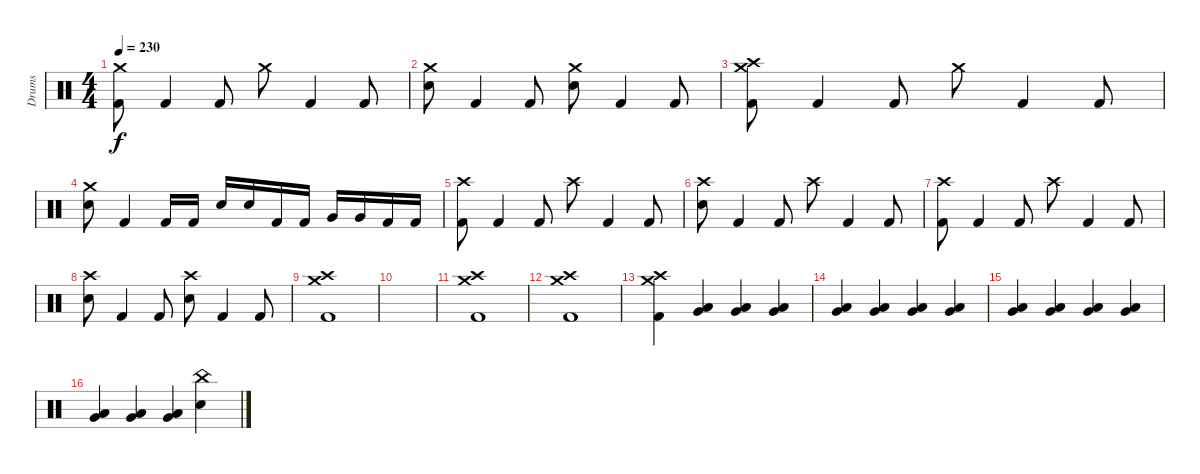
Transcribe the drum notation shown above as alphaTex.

\track ("Drums" "Drums") {instrument percussion}
\staff {score}
\articulation defaults
\ts (4 4)
\tempo 230
\clef neutral
\ks c
("Crash medium (hit)" "Kick (hit) 2").8{dy f} "Kick (hit) 2".4 "Kick (hit) 2".8 "Crash medium (hit)".8 "Kick (hit) 2".4 "Kick (hit) 2".8 |
("Crash medium (hit)" "Electric Snare (hit)").8 "Kick (hit) 2".4 "Kick (hit) 2".8 ("Crash medium (hit)" "Electric Snare (hit)").8 "Kick (hit) 2".4 "Kick (hit) 2".8 |
("Crash medium (hit)" "Crash high (hit)" "Kick (hit) 2").8 "Kick (hit) 2".4 "Kick (hit) 2".8 "Crash medium (hit)".8 "Kick (hit) 2".4 "Kick (hit) 2".8 |
("Crash medium (hit)" "Electric Snare (hit)").8 "Kick (hit) 2".4 "Kick (hit) 2".16 "Kick (hit) 2".16 "Electric Snare (hit)".16 "Electric Snare (hit)".16 "Kick (hit) 2".16 "Kick (hit) 2".16 "Very Low Tom (hit)".16 "Very Low Tom (hit)".16 "Kick (hit) 2".16 "Kick (hit) 2".16 |
("Crash high (hit)" "Kick (hit) 2").8 "Kick (hit) 2".4 "Kick (hit) 2".8 "Crash high (hit)".8 "Kick (hit) 2".4 "Kick (hit) 2".8 |
("Crash high (hit)" "Electric Snare (hit)").8 "Kick (hit) 2".4 "Kick (hit) 2".8 "Crash high (hit)".8 "Kick (hit) 2".4 "Kick (hit) 2".8 |
("Crash high (hit)" "Kick (hit) 2").8 "Kick (hit) 2".4 "Kick (hit) 2".8 "Crash high (hit)".8 "Kick (hit) 2".4 "Kick (hit) 2".8 |
("Crash high (hit)" "Electric Snare (hit)").8 "Kick (hit) 2".4 "Kick (hit) 2".8 ("Crash high (hit)" "Electric Snare (hit)").8 "Kick (hit) 2".4 "Kick (hit) 2".8 |
("Crash medium (hit)" "Crash high (hit)" "Kick (hit) 2").1 |
|
("Crash medium (hit)" "Crash high (hit)" "Kick (hit) 2").1 |
("Crash medium (hit)" "Crash high (hit)" "Kick (hit) 2").1 |
("Crash medium (hit)" "Crash high (hit)" "Kick (hit) 2").4 ("Low Floor Tom (hit)" "Very Low Tom (hit)").4 ("Low Floor Tom (hit)" "Very Low Tom (hit)").4 ("Low Floor Tom (hit)" "Very Low Tom (hit)").4 |
("Low Floor Tom (hit)" "Very Low Tom (hit)").4 ("Low Floor Tom (hit)" "Very Low Tom (hit)").4 ("Low Floor Tom (hit)" "Very Low Tom (hit)").4 ("Low Floor Tom (hit)" "Very Low Tom (hit)").4 |
("Low Floor Tom (hit)" "Very Low Tom (hit)").4 ("Low Floor Tom (hit)" "Very Low Tom (hit)").4 ("Low Floor Tom (hit)" "Very Low Tom (hit)").4 ("Low Floor Tom (hit)" "Very Low Tom (hit)").4 |
("Low Floor Tom (hit)" "Very Low Tom (hit)").4 ("Low Floor Tom (hit)" "Very Low Tom (hit)").4 ("Low Floor Tom (hit)" "Very Low Tom (hit)").4 ("China (hit)" "Electric Snare (hit)").4
